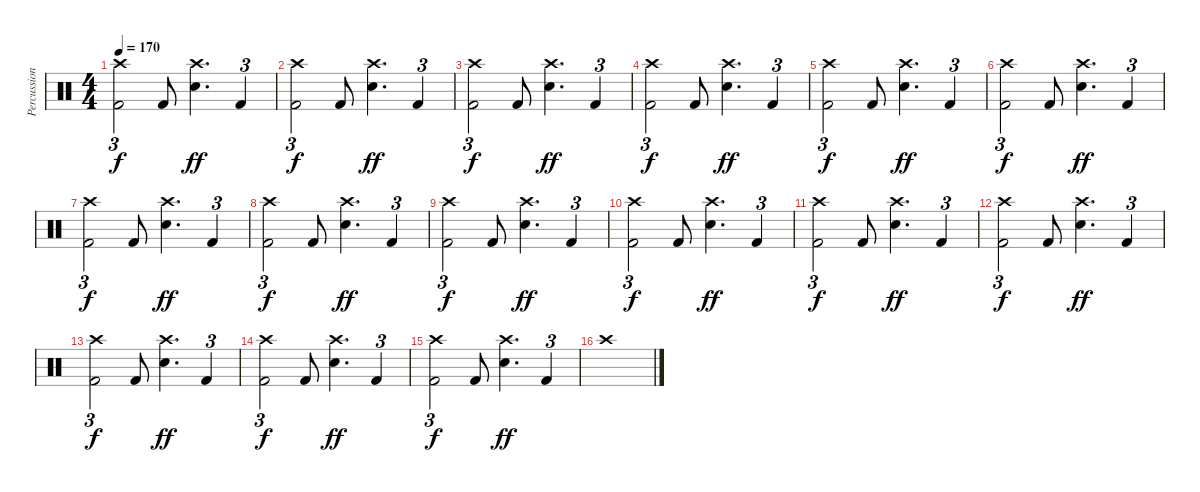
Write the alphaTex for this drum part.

\track ("Percussion" "Percussion") {instrument percussion bank 127}
\staff {score}
\articulation defaults
\ts (4 4)
\tempo 170
\clef neutral
\ks c
("Crash high (hit)" "Kick (hit) 2").2{tu (3 2) dy f} "Kick (hit) 2".8 ("Crash high (hit)" "Snare (hit) 2").4{d dy ff} "Kick (hit) 2".4{tu (3 2)} |
("Crash high (hit)" "Kick (hit) 2").2{tu (3 2) dy f} "Kick (hit) 2".8 ("Crash high (hit)" "Snare (hit) 2").4{d dy ff} "Kick (hit) 2".4{tu (3 2)} |
("Crash high (hit)" "Kick (hit) 2").2{tu (3 2) dy f} "Kick (hit) 2".8 ("Crash high (hit)" "Snare (hit) 2").4{d dy ff} "Kick (hit) 2".4{tu (3 2)} |
("Crash high (hit)" "Kick (hit) 2").2{tu (3 2) dy f} "Kick (hit) 2".8 ("Crash high (hit)" "Snare (hit) 2").4{d dy ff} "Kick (hit) 2".4{tu (3 2)} |
("Crash high (hit)" "Kick (hit) 2").2{tu (3 2) dy f} "Kick (hit) 2".8 ("Crash high (hit)" "Snare (hit) 2").4{d dy ff} "Kick (hit) 2".4{tu (3 2)} |
("Crash high (hit)" "Kick (hit) 2").2{tu (3 2) dy f} "Kick (hit) 2".8 ("Crash high (hit)" "Snare (hit) 2").4{d dy ff} "Kick (hit) 2".4{tu (3 2)} |
("Crash high (hit)" "Kick (hit) 2").2{tu (3 2) dy f} "Kick (hit) 2".8 ("Crash high (hit)" "Snare (hit) 2").4{d dy ff} "Kick (hit) 2".4{tu (3 2)} |
("Crash high (hit)" "Kick (hit) 2").2{tu (3 2) dy f} "Kick (hit) 2".8 ("Crash high (hit)" "Snare (hit) 2").4{d dy ff} "Kick (hit) 2".4{tu (3 2)} |
("Crash high (hit)" "Kick (hit) 2").2{tu (3 2) dy f} "Kick (hit) 2".8 ("Crash high (hit)" "Snare (hit) 2").4{d dy ff} "Kick (hit) 2".4{tu (3 2)} |
("Crash high (hit)" "Kick (hit) 2").2{tu (3 2) dy f} "Kick (hit) 2".8 ("Crash high (hit)" "Snare (hit) 2").4{d dy ff} "Kick (hit) 2".4{tu (3 2)} |
("Crash high (hit)" "Kick (hit) 2").2{tu (3 2) dy f} "Kick (hit) 2".8 ("Crash high (hit)" "Snare (hit) 2").4{d dy ff} "Kick (hit) 2".4{tu (3 2)} |
("Crash high (hit)" "Kick (hit) 2").2{tu (3 2) dy f} "Kick (hit) 2".8 ("Crash high (hit)" "Snare (hit) 2").4{d dy ff} "Kick (hit) 2".4{tu (3 2)} |
("Crash high (hit)" "Kick (hit) 2").2{tu (3 2) dy f} "Kick (hit) 2".8 ("Crash high (hit)" "Snare (hit) 2").4{d dy ff} "Kick (hit) 2".4{tu (3 2)} |
("Crash high (hit)" "Kick (hit) 2").2{tu (3 2) dy f} "Kick (hit) 2".8 ("Crash high (hit)" "Snare (hit) 2").4{d dy ff} "Kick (hit) 2".4{tu (3 2)} |
("Crash high (hit)" "Kick (hit) 2").2{tu (3 2) dy f} "Kick (hit) 2".8 ("Crash high (hit)" "Snare (hit) 2").4{d dy ff} "Kick (hit) 2".4{tu (3 2)} |
"Crash high (hit)".1
